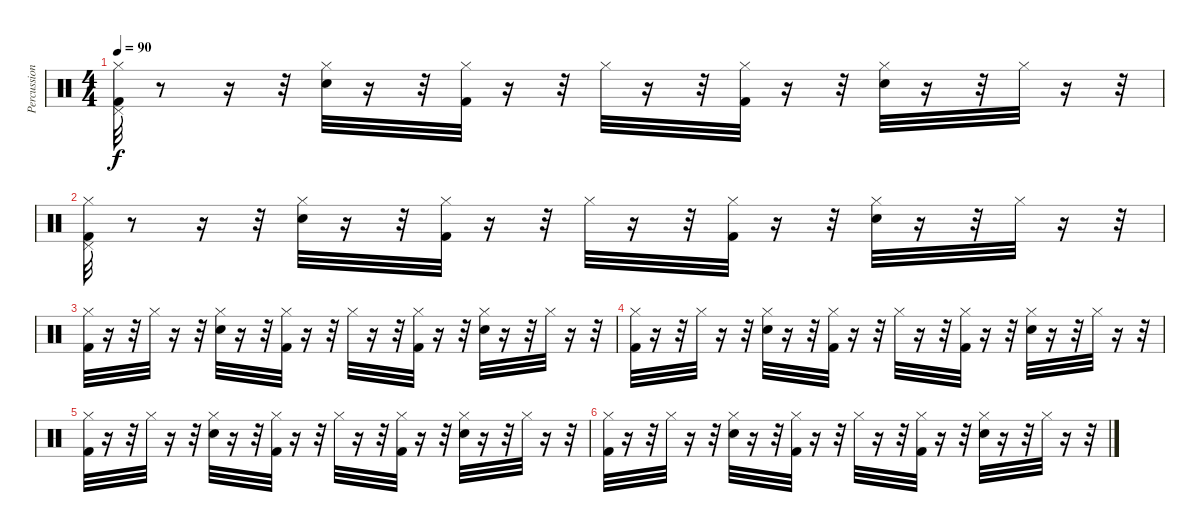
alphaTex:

\track ("Percussioni" "Percussion") {instrument percussion}
\staff {score}
\articulation defaults
\ts (4 4)
\tempo 90
\clef neutral
\ks c
("Hi-Hat (closed)" "Pedal Hi-Hat (hit)" "Kick (hit) 2").32{dy f} r.8 r.16 r.32 ("Hi-Hat (closed)" "Electric Snare (hit)").32 r.16 r.32 ("Kick (hit) 2" "Hi-Hat (closed)").32 r.16 r.32 "Hi-Hat (closed)".32 r.16 r.32 ("Kick (hit) 2" "Hi-Hat (closed)").32 r.16 r.32 ("Hi-Hat (closed)" "Electric Snare (hit)").32 r.16 r.32 "Hi-Hat (closed)".32 r.16 r.32 |
("Hi-Hat (closed)" "Pedal Hi-Hat (hit)" "Kick (hit) 2").32 r.8 r.16 r.32 ("Hi-Hat (closed)" "Electric Snare (hit)").32 r.16 r.32 ("Kick (hit) 2" "Hi-Hat (closed)").32 r.16 r.32 "Hi-Hat (closed)".32 r.16 r.32 ("Kick (hit) 2" "Hi-Hat (closed)").32 r.16 r.32 ("Hi-Hat (closed)" "Electric Snare (hit)").32 r.16 r.32 "Hi-Hat (closed)".32 r.16 r.32 |
("Hi-Hat (closed)" "Kick (hit) 2").32 r.16 r.32 "Hi-Hat (closed)".32 r.16 r.32 ("Hi-Hat (closed)" "Electric Snare (hit)").32 r.16 r.32 ("Kick (hit) 2" "Hi-Hat (closed)").32 r.16 r.32 "Hi-Hat (closed)".32 r.16 r.32 ("Kick (hit) 2" "Hi-Hat (closed)").32 r.16 r.32 ("Hi-Hat (closed)" "Electric Snare (hit)").32 r.16 r.32 "Hi-Hat (closed)".32 r.16 r.32 |
("Hi-Hat (closed)" "Kick (hit) 2").32 r.16 r.32 "Hi-Hat (closed)".32 r.16 r.32 ("Hi-Hat (closed)" "Electric Snare (hit)").32 r.16 r.32 ("Kick (hit) 2" "Hi-Hat (closed)").32 r.16 r.32 "Hi-Hat (closed)".32 r.16 r.32 ("Kick (hit) 2" "Hi-Hat (closed)").32 r.16 r.32 ("Hi-Hat (closed)" "Electric Snare (hit)").32 r.16 r.32 "Hi-Hat (closed)".32 r.16 r.32 |
("Hi-Hat (closed)" "Kick (hit) 2").32 r.16 r.32 "Hi-Hat (closed)".32 r.16 r.32 ("Hi-Hat (closed)" "Electric Snare (hit)").32 r.16 r.32 ("Kick (hit) 2" "Hi-Hat (closed)").32 r.16 r.32 "Hi-Hat (closed)".32 r.16 r.32 ("Kick (hit) 2" "Hi-Hat (closed)").32 r.16 r.32 ("Hi-Hat (closed)" "Electric Snare (hit)").32 r.16 r.32 "Hi-Hat (closed)".32 r.16 r.32 |
("Hi-Hat (closed)" "Kick (hit) 2").32 r.16 r.32 "Hi-Hat (closed)".32 r.16 r.32 ("Hi-Hat (closed)" "Electric Snare (hit)").32 r.16 r.32 ("Kick (hit) 2" "Hi-Hat (closed)").32 r.16 r.32 "Hi-Hat (closed)".32 r.16 r.32 ("Kick (hit) 2" "Hi-Hat (closed)").32 r.16 r.32 ("Hi-Hat (closed)" "Electric Snare (hit)").32 r.16 r.32 "Hi-Hat (closed)".32 r.16 r.32
